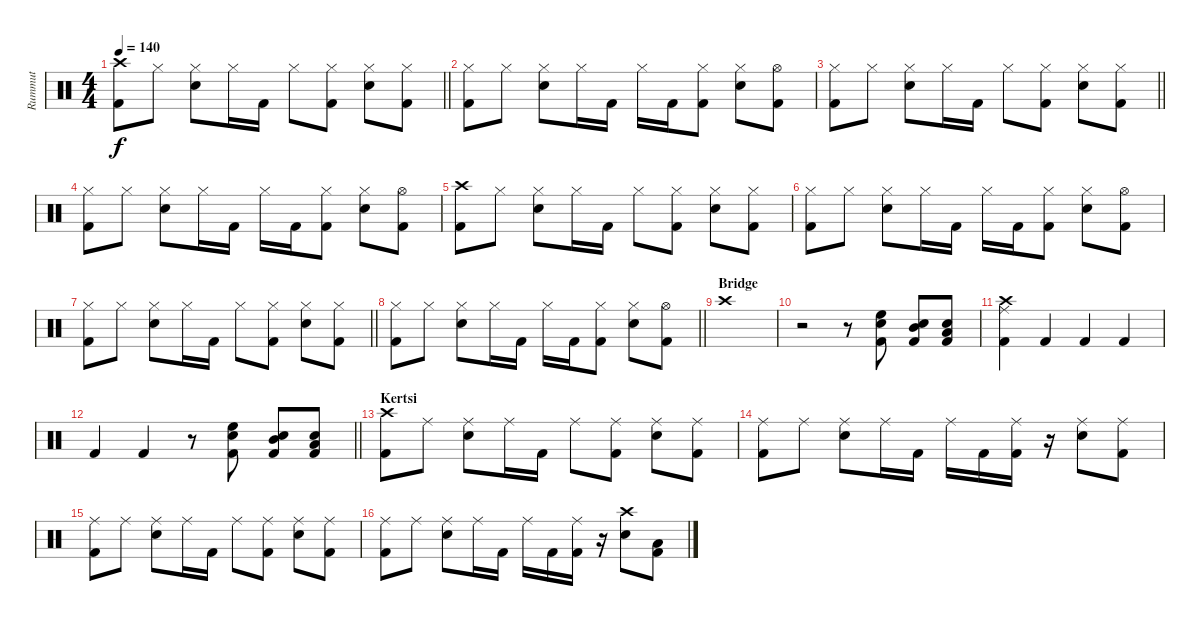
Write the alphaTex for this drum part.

\track ("Rummut" "Rummut") {instrument percussion}
\staff {score}
\articulation defaults
\ts (4 4)
\tempo 140
\clef neutral
\barLineRight lightlight
\ks c
("Crash high (hit)" "Kick (hit) 2").8{dy f} "Hi-Hat (closed)".8 ("Hi-Hat (closed)" "Snare (hit) 2").8 "Hi-Hat (closed)".16 "Kick (hit) 2".16 "Hi-Hat (closed)".8 ("Hi-Hat (closed)" "Kick (hit) 2").8 ("Hi-Hat (closed)" "Snare (hit) 2").8 ("Hi-Hat (closed)" "Kick (hit) 2").8 |
("Hi-Hat (closed)" "Kick (hit) 2").8 "Hi-Hat (closed)".8 ("Hi-Hat (closed)" "Snare (hit) 2").8 "Hi-Hat (closed)".16 "Kick (hit) 2".16 "Hi-Hat (closed)".16 "Kick (hit) 2".16 ("Hi-Hat (closed)" "Kick (hit) 2").8 ("Hi-Hat (closed)" "Snare (hit) 2").8 ("Hi-Hat (open)" "Kick (hit) 2").8 |
\barLineRight lightlight
("Hi-Hat (closed)" "Kick (hit) 2").8 "Hi-Hat (closed)".8 ("Hi-Hat (closed)" "Snare (hit) 2").8 "Hi-Hat (closed)".16 "Kick (hit) 2".16 "Hi-Hat (closed)".8 ("Hi-Hat (closed)" "Kick (hit) 2").8 ("Hi-Hat (closed)" "Snare (hit) 2").8 ("Hi-Hat (closed)" "Kick (hit) 2").8 |
("Hi-Hat (closed)" "Kick (hit) 2").8 "Hi-Hat (closed)".8 ("Hi-Hat (closed)" "Snare (hit) 2").8 "Hi-Hat (closed)".16 "Kick (hit) 2".16 "Hi-Hat (closed)".16 "Kick (hit) 2".16 ("Hi-Hat (closed)" "Kick (hit) 2").8 ("Hi-Hat (closed)" "Snare (hit) 2").8 ("Hi-Hat (open)" "Kick (hit) 2").8 |
("Crash high (hit)" "Kick (hit) 2").8 "Hi-Hat (closed)".8 ("Hi-Hat (closed)" "Snare (hit) 2").8 "Hi-Hat (closed)".16 "Kick (hit) 2".16 "Hi-Hat (closed)".8 ("Hi-Hat (closed)" "Kick (hit) 2").8 ("Hi-Hat (closed)" "Snare (hit) 2").8 ("Hi-Hat (closed)" "Kick (hit) 2").8 |
("Hi-Hat (closed)" "Kick (hit) 2").8 "Hi-Hat (closed)".8 ("Hi-Hat (closed)" "Snare (hit) 2").8 "Hi-Hat (closed)".16 "Kick (hit) 2".16 "Hi-Hat (closed)".16 "Kick (hit) 2".16 ("Hi-Hat (closed)" "Kick (hit) 2").8 ("Hi-Hat (closed)" "Snare (hit) 2").8 ("Hi-Hat (open)" "Kick (hit) 2").8 |
\barLineRight lightlight
("Hi-Hat (closed)" "Kick (hit) 2").8 "Hi-Hat (closed)".8 ("Hi-Hat (closed)" "Snare (hit) 2").8 "Hi-Hat (closed)".16 "Kick (hit) 2".16 "Hi-Hat (closed)".8 ("Hi-Hat (closed)" "Kick (hit) 2").8 ("Hi-Hat (closed)" "Snare (hit) 2").8 ("Hi-Hat (closed)" "Kick (hit) 2").8 |
\barLineRight lightlight
("Hi-Hat (closed)" "Kick (hit) 2").8 "Hi-Hat (closed)".8 ("Hi-Hat (closed)" "Snare (hit) 2").8 "Hi-Hat (closed)".16 "Kick (hit) 2".16 "Hi-Hat (closed)".16 "Kick (hit) 2".16 ("Hi-Hat (closed)" "Kick (hit) 2").8 ("Hi-Hat (closed)" "Snare (hit) 2").8 ("Hi-Hat (open)" "Kick (hit) 2").8 |
\section ("" "Bridge")
"Crash high (hit)".1 |
r.2 r.8 ("High Floor Tom (hit)" "Snare (hit) 2" "Kick (hit) 2").8 ("Mid Tom (hit)" "Snare (hit) 2" "Kick (hit) 2").8 ("Low Floor Tom (hit)" "Snare (hit) 2" "Kick (hit) 2").8 |
("Crash high (hit)" "Ride (middle)" "Kick (hit) 2").4 "Kick (hit) 2".4 "Kick (hit) 2".4 "Kick (hit) 2".4 |
\barLineRight lightlight "Kick (hit) 2".4 "Kick (hit) 2".4
r.8 ("High Floor Tom (hit)" "Snare (hit) 2" "Kick (hit) 2").8 ("Mid Tom (hit)" "Snare (hit) 2" "Kick (hit) 2").8 ("Low Floor Tom (hit)" "Snare (hit) 2" "Kick (hit) 2").8 |
\section ("" "Kertsi")
("Crash high (hit)" "Kick (hit) 2").8 "Ride (middle)".8 ("Ride (middle)" "Snare (hit) 2").8 "Ride (middle)".16 "Kick (hit) 2".16 "Ride (middle)".8 ("Ride (middle)" "Kick (hit) 2").8 ("Ride (middle)" "Snare (hit) 2").8 ("Ride (middle)" "Kick (hit) 2").8 |
("Ride (middle)" "Kick (hit) 2").8 "Ride (middle)".8 ("Ride (middle)" "Snare (hit) 2").8 "Ride (middle)".16 "Kick (hit) 2".16 "Ride (middle)".16 "Kick (hit) 2".16 ("Ride (middle)" "Kick (hit) 2").16 r.16 ("Ride (middle)" "Snare (hit) 2").8 ("Ride (middle)" "Kick (hit) 2").8 |
("Ride (middle)" "Kick (hit) 2").8 "Ride (middle)".8 ("Ride (middle)" "Snare (hit) 2").8 "Ride (middle)".16 "Kick (hit) 2".16 "Ride (middle)".8 ("Ride (middle)" "Kick (hit) 2").8 ("Ride (middle)" "Snare (hit) 2").8 ("Ride (middle)" "Kick (hit) 2").8 |
("Ride (middle)" "Kick (hit) 2").8 "Ride (middle)".8 ("Ride (middle)" "Snare (hit) 2").8 "Ride (middle)".16 "Kick (hit) 2".16 "Ride (middle)".16 "Kick (hit) 2".16 ("Ride (middle)" "Kick (hit) 2").16 r.16 ("Crash high (hit)" "Snare (hit) 2").8 ("Low Floor Tom (hit)" "Kick (hit) 2").8
